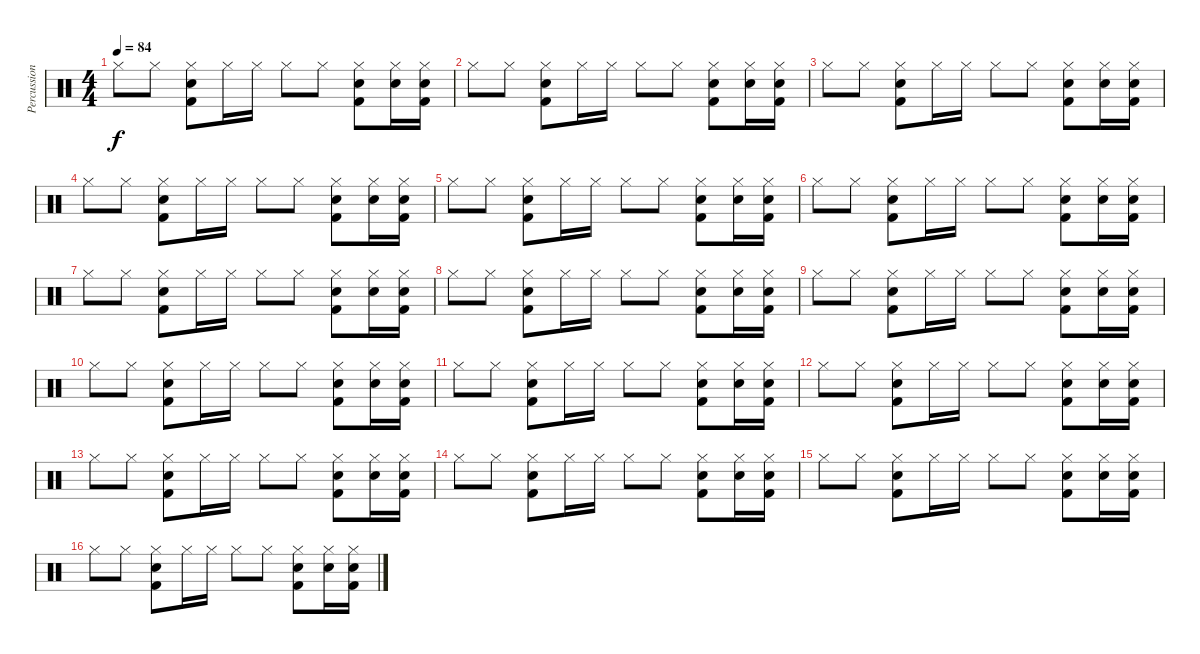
\track ("Percussion" "Percussion") {instrument percussion}
\staff {score}
\articulation defaults
\ts (4 4)
\tempo 84
\clef neutral
\ks c "Hi-Hat (closed)".8{dy f} "Hi-Hat (closed)".8
("Hi-Hat (closed)" "Snare (hit) 2" "Kick (hit) 2").8 "Hi-Hat (closed)".16 "Hi-Hat (closed)".16 "Hi-Hat (closed)".8 "Hi-Hat (closed)".8 ("Hi-Hat (closed)" "Snare (hit) 2" "Kick (hit) 2").8 ("Hi-Hat (closed)" "Snare (hit) 2").16 ("Hi-Hat (closed)" "Snare (hit) 2" "Kick (hit) 2").16 |
"Hi-Hat (closed)".8 "Hi-Hat (closed)".8 ("Hi-Hat (closed)" "Snare (hit) 2" "Kick (hit) 2").8 "Hi-Hat (closed)".16 "Hi-Hat (closed)".16 "Hi-Hat (closed)".8 "Hi-Hat (closed)".8 ("Hi-Hat (closed)" "Snare (hit) 2" "Kick (hit) 2").8 ("Hi-Hat (closed)" "Snare (hit) 2").16 ("Hi-Hat (closed)" "Snare (hit) 2" "Kick (hit) 2").16 |
"Hi-Hat (closed)".8 "Hi-Hat (closed)".8 ("Hi-Hat (closed)" "Snare (hit) 2" "Kick (hit) 2").8 "Hi-Hat (closed)".16 "Hi-Hat (closed)".16 "Hi-Hat (closed)".8 "Hi-Hat (closed)".8 ("Hi-Hat (closed)" "Snare (hit) 2" "Kick (hit) 2").8 ("Hi-Hat (closed)" "Snare (hit) 2").16 ("Hi-Hat (closed)" "Snare (hit) 2" "Kick (hit) 2").16 |
"Hi-Hat (closed)".8 "Hi-Hat (closed)".8 ("Hi-Hat (closed)" "Snare (hit) 2" "Kick (hit) 2").8 "Hi-Hat (closed)".16 "Hi-Hat (closed)".16 "Hi-Hat (closed)".8 "Hi-Hat (closed)".8 ("Hi-Hat (closed)" "Snare (hit) 2" "Kick (hit) 2").8 ("Hi-Hat (closed)" "Snare (hit) 2").16 ("Hi-Hat (closed)" "Snare (hit) 2" "Kick (hit) 2").16 |
"Hi-Hat (closed)".8 "Hi-Hat (closed)".8 ("Hi-Hat (closed)" "Snare (hit) 2" "Kick (hit) 2").8 "Hi-Hat (closed)".16 "Hi-Hat (closed)".16 "Hi-Hat (closed)".8 "Hi-Hat (closed)".8 ("Hi-Hat (closed)" "Snare (hit) 2" "Kick (hit) 2").8 ("Hi-Hat (closed)" "Snare (hit) 2").16 ("Hi-Hat (closed)" "Snare (hit) 2" "Kick (hit) 2").16 |
"Hi-Hat (closed)".8 "Hi-Hat (closed)".8 ("Hi-Hat (closed)" "Snare (hit) 2" "Kick (hit) 2").8 "Hi-Hat (closed)".16 "Hi-Hat (closed)".16 "Hi-Hat (closed)".8 "Hi-Hat (closed)".8 ("Hi-Hat (closed)" "Snare (hit) 2" "Kick (hit) 2").8 ("Hi-Hat (closed)" "Snare (hit) 2").16 ("Hi-Hat (closed)" "Snare (hit) 2" "Kick (hit) 2").16 |
"Hi-Hat (closed)".8 "Hi-Hat (closed)".8 ("Hi-Hat (closed)" "Snare (hit) 2" "Kick (hit) 2").8 "Hi-Hat (closed)".16 "Hi-Hat (closed)".16 "Hi-Hat (closed)".8 "Hi-Hat (closed)".8 ("Hi-Hat (closed)" "Snare (hit) 2" "Kick (hit) 2").8 ("Hi-Hat (closed)" "Snare (hit) 2").16 ("Hi-Hat (closed)" "Snare (hit) 2" "Kick (hit) 2").16 |
"Hi-Hat (closed)".8 "Hi-Hat (closed)".8 ("Hi-Hat (closed)" "Snare (hit) 2" "Kick (hit) 2").8 "Hi-Hat (closed)".16 "Hi-Hat (closed)".16 "Hi-Hat (closed)".8 "Hi-Hat (closed)".8 ("Hi-Hat (closed)" "Snare (hit) 2" "Kick (hit) 2").8 ("Hi-Hat (closed)" "Snare (hit) 2").16 ("Hi-Hat (closed)" "Snare (hit) 2" "Kick (hit) 2").16 |
"Hi-Hat (closed)".8 "Hi-Hat (closed)".8 ("Hi-Hat (closed)" "Snare (hit) 2" "Kick (hit) 2").8 "Hi-Hat (closed)".16 "Hi-Hat (closed)".16 "Hi-Hat (closed)".8 "Hi-Hat (closed)".8 ("Hi-Hat (closed)" "Snare (hit) 2" "Kick (hit) 2").8 ("Hi-Hat (closed)" "Snare (hit) 2").16 ("Hi-Hat (closed)" "Snare (hit) 2" "Kick (hit) 2").16 |
"Hi-Hat (closed)".8 "Hi-Hat (closed)".8 ("Hi-Hat (closed)" "Snare (hit) 2" "Kick (hit) 2").8 "Hi-Hat (closed)".16 "Hi-Hat (closed)".16 "Hi-Hat (closed)".8 "Hi-Hat (closed)".8 ("Hi-Hat (closed)" "Snare (hit) 2" "Kick (hit) 2").8 ("Hi-Hat (closed)" "Snare (hit) 2").16 ("Hi-Hat (closed)" "Snare (hit) 2" "Kick (hit) 2").16 |
"Hi-Hat (closed)".8 "Hi-Hat (closed)".8 ("Hi-Hat (closed)" "Snare (hit) 2" "Kick (hit) 2").8 "Hi-Hat (closed)".16 "Hi-Hat (closed)".16 "Hi-Hat (closed)".8 "Hi-Hat (closed)".8 ("Hi-Hat (closed)" "Snare (hit) 2" "Kick (hit) 2").8 ("Hi-Hat (closed)" "Snare (hit) 2").16 ("Hi-Hat (closed)" "Snare (hit) 2" "Kick (hit) 2").16 |
"Hi-Hat (closed)".8 "Hi-Hat (closed)".8 ("Hi-Hat (closed)" "Snare (hit) 2" "Kick (hit) 2").8 "Hi-Hat (closed)".16 "Hi-Hat (closed)".16 "Hi-Hat (closed)".8 "Hi-Hat (closed)".8 ("Hi-Hat (closed)" "Snare (hit) 2" "Kick (hit) 2").8 ("Hi-Hat (closed)" "Snare (hit) 2").16 ("Hi-Hat (closed)" "Snare (hit) 2" "Kick (hit) 2").16 |
"Hi-Hat (closed)".8 "Hi-Hat (closed)".8 ("Hi-Hat (closed)" "Snare (hit) 2" "Kick (hit) 2").8 "Hi-Hat (closed)".16 "Hi-Hat (closed)".16 "Hi-Hat (closed)".8 "Hi-Hat (closed)".8 ("Hi-Hat (closed)" "Snare (hit) 2" "Kick (hit) 2").8 ("Hi-Hat (closed)" "Snare (hit) 2").16 ("Hi-Hat (closed)" "Snare (hit) 2" "Kick (hit) 2").16 |
"Hi-Hat (closed)".8 "Hi-Hat (closed)".8 ("Hi-Hat (closed)" "Snare (hit) 2" "Kick (hit) 2").8 "Hi-Hat (closed)".16 "Hi-Hat (closed)".16 "Hi-Hat (closed)".8 "Hi-Hat (closed)".8 ("Hi-Hat (closed)" "Snare (hit) 2" "Kick (hit) 2").8 ("Hi-Hat (closed)" "Snare (hit) 2").16 ("Hi-Hat (closed)" "Snare (hit) 2" "Kick (hit) 2").16 |
"Hi-Hat (closed)".8 "Hi-Hat (closed)".8 ("Hi-Hat (closed)" "Snare (hit) 2" "Kick (hit) 2").8 "Hi-Hat (closed)".16 "Hi-Hat (closed)".16 "Hi-Hat (closed)".8 "Hi-Hat (closed)".8 ("Hi-Hat (closed)" "Snare (hit) 2" "Kick (hit) 2").8 ("Hi-Hat (closed)" "Snare (hit) 2").16 ("Hi-Hat (closed)" "Snare (hit) 2" "Kick (hit) 2").16 |
"Hi-Hat (closed)".8 "Hi-Hat (closed)".8 ("Hi-Hat (closed)" "Snare (hit) 2" "Kick (hit) 2").8 "Hi-Hat (closed)".16 "Hi-Hat (closed)".16 "Hi-Hat (closed)".8 "Hi-Hat (closed)".8 ("Hi-Hat (closed)" "Snare (hit) 2" "Kick (hit) 2").8 ("Hi-Hat (closed)" "Snare (hit) 2").16 ("Hi-Hat (closed)" "Snare (hit) 2" "Kick (hit) 2").16
